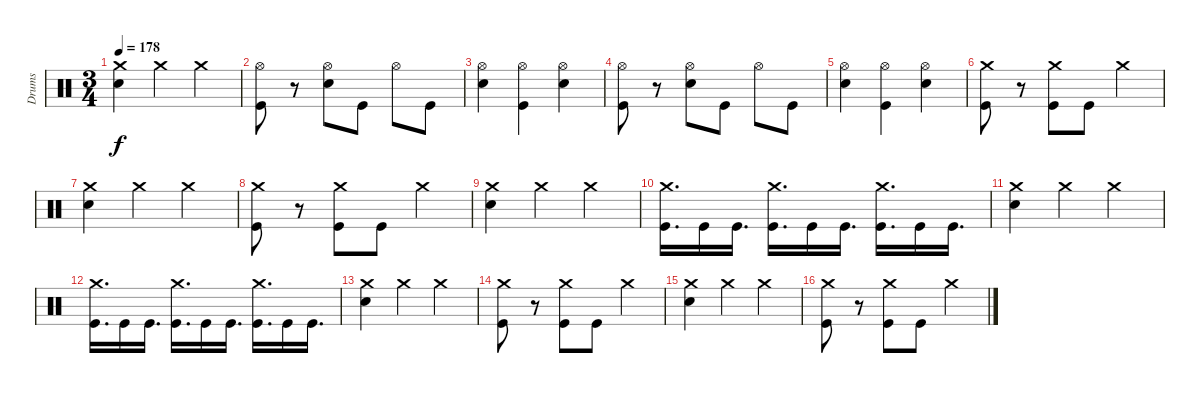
\track ("Drums" "Drums") {instrument percussion}
\staff {score}
\articulation defaults
\ts (3 4)
\tempo 178
\clef neutral
\ks c
("Crash medium (hit)" "Snare (hit) 2").4{dy f} "Crash medium (hit)".4 "Crash medium (hit)".4 |
("Hi-Hat (open)" "Kick (hit)").8 r.8 ("Hi-Hat (open)" "Snare (hit) 2").8 "Kick (hit)".8 "Hi-Hat (open)".8 "Kick (hit)".8 |
("Hi-Hat (open)" "Snare (hit) 2").4 ("Hi-Hat (open)" "Kick (hit)").4 ("Hi-Hat (open)" "Snare (hit) 2").4 |
("Hi-Hat (open)" "Kick (hit)").8 r.8 ("Hi-Hat (open)" "Snare (hit) 2").8 "Kick (hit)".8 "Hi-Hat (open)".8 "Kick (hit)".8 |
("Hi-Hat (open)" "Snare (hit) 2").4 ("Hi-Hat (open)" "Kick (hit)").4 ("Hi-Hat (open)" "Snare (hit) 2").4 |
("Crash medium (hit)" "Kick (hit)").8 r.8 ("Crash medium (hit)" "Kick (hit)").8 "Kick (hit)".8 "Crash medium (hit)".4 |
("Crash medium (hit)" "Snare (hit) 2").4 "Crash medium (hit)".4 "Crash medium (hit)".4 |
("Crash medium (hit)" "Kick (hit)").8 r.8 ("Crash medium (hit)" "Kick (hit)").8 "Kick (hit)".8 "Crash medium (hit)".4 |
("Crash medium (hit)" "Snare (hit) 2").4 "Crash medium (hit)".4 "Crash medium (hit)".4 |
("Kick (hit)" "Crash medium (hit)").16{d} "Kick (hit)".16 "Kick (hit)".16{d} ("Kick (hit)" "Crash medium (hit)").16{d} "Kick (hit)".16 "Kick (hit)".16{d} ("Kick (hit)" "Crash medium (hit)").16{d} "Kick (hit)".16 "Kick (hit)".16{d} |
("Snare (hit) 2" "Crash medium (hit)").4 "Crash medium (hit)".4 "Crash medium (hit)".4 |
("Kick (hit)" "Crash medium (hit)").16{d} "Kick (hit)".16 "Kick (hit)".16{d} ("Kick (hit)" "Crash medium (hit)").16{d} "Kick (hit)".16 "Kick (hit)".16{d} ("Kick (hit)" "Crash medium (hit)").16{d} "Kick (hit)".16 "Kick (hit)".16{d} |
("Snare (hit) 2" "Crash medium (hit)").4 "Crash medium (hit)".4 "Crash medium (hit)".4 |
("Crash medium (hit)" "Kick (hit)").8 r.8 ("Crash medium (hit)" "Kick (hit)").8 "Kick (hit)".8 "Crash medium (hit)".4 |
("Crash medium (hit)" "Snare (hit) 2").4 "Crash medium (hit)".4 "Crash medium (hit)".4 |
("Crash medium (hit)" "Kick (hit)").8 r.8 ("Crash medium (hit)" "Kick (hit)").8 "Kick (hit)".8 "Crash medium (hit)".4
